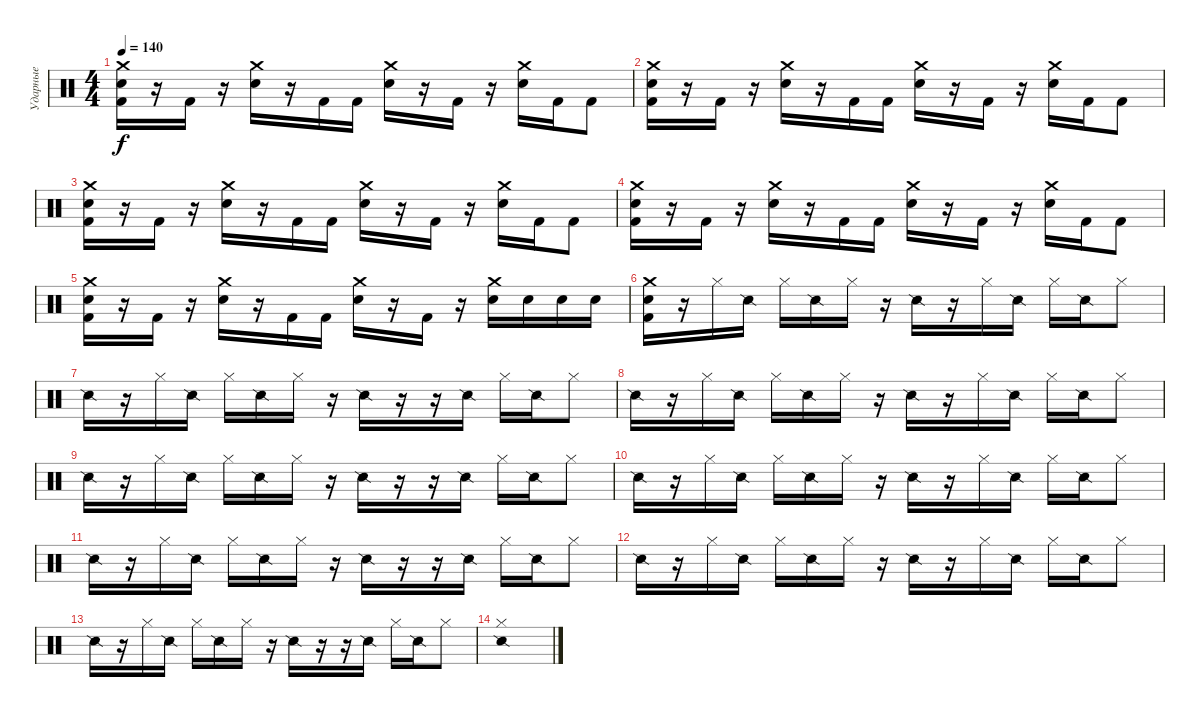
\track ("Ударные" "Ударные") {instrument percussion}
\staff {score}
\articulation defaults
\ts (4 4)
\tempo 140
\clef neutral
\ks c
("Crash medium (hit)" "Electric Snare (hit)" "Kick (hit) 2").16{dy f} r.16 "Kick (hit) 2".16 r.16 ("Crash medium (hit)" "Electric Snare (hit)").16 r.16 "Kick (hit) 2".16 "Kick (hit) 2".16 ("Crash medium (hit)" "Electric Snare (hit)").16 r.16 "Kick (hit) 2".16 r.16 ("Crash medium (hit)" "Electric Snare (hit)").16 "Kick (hit) 2".16 "Kick (hit) 2".8 |
("Crash medium (hit)" "Electric Snare (hit)" "Kick (hit) 2").16 r.16 "Kick (hit) 2".16 r.16 ("Crash medium (hit)" "Electric Snare (hit)").16 r.16 "Kick (hit) 2".16 "Kick (hit) 2".16 ("Crash medium (hit)" "Electric Snare (hit)").16 r.16 "Kick (hit) 2".16 r.16 ("Crash medium (hit)" "Electric Snare (hit)").16 "Kick (hit) 2".16 "Kick (hit) 2".8 |
("Crash medium (hit)" "Electric Snare (hit)" "Kick (hit) 2").16 r.16 "Kick (hit) 2".16 r.16 ("Crash medium (hit)" "Electric Snare (hit)").16 r.16 "Kick (hit) 2".16 "Kick (hit) 2".16 ("Crash medium (hit)" "Electric Snare (hit)").16 r.16 "Kick (hit) 2".16 r.16 ("Crash medium (hit)" "Electric Snare (hit)").16 "Kick (hit) 2".16 "Kick (hit) 2".8 |
("Crash medium (hit)" "Electric Snare (hit)" "Kick (hit) 2").16 r.16 "Kick (hit) 2".16 r.16 ("Crash medium (hit)" "Electric Snare (hit)").16 r.16 "Kick (hit) 2".16 "Kick (hit) 2".16 ("Crash medium (hit)" "Electric Snare (hit)").16 r.16 "Kick (hit) 2".16 r.16 ("Crash medium (hit)" "Electric Snare (hit)").16 "Kick (hit) 2".16 "Kick (hit) 2".8 |
("Crash medium (hit)" "Electric Snare (hit)" "Kick (hit) 2").16 r.16 "Kick (hit) 2".16 r.16 ("Crash medium (hit)" "Electric Snare (hit)").16 r.16 "Kick (hit) 2".16 "Kick (hit) 2".16 ("Crash medium (hit)" "Electric Snare (hit)").16 r.16 "Kick (hit) 2".16 r.16 ("Crash medium (hit)" "Electric Snare (hit)").16 "Electric Snare (hit)".16 "Electric Snare (hit)".16 "Electric Snare (hit)".16 |
("Crash medium (hit)" "Electric Snare (hit)" "Kick (hit) 2").16 r.16 "Hi-Hat (closed)".16 "Snare (side stick) 2".16 "Hi-Hat (closed)".16 "Snare (side stick) 2".16 "Hi-Hat (closed)".16 r.16 "Snare (side stick) 2".16 r.16 "Hi-Hat (closed)".16 "Snare (side stick) 2".16 "Hi-Hat (closed)".16 "Snare (side stick) 2".16 "Hi-Hat (closed)".8 |
"Snare (side stick) 2".16 r.16 "Hi-Hat (closed)".16 "Snare (side stick) 2".16 "Hi-Hat (closed)".16 "Snare (side stick) 2".16 "Hi-Hat (closed)".16 r.16 "Snare (side stick) 2".16 r.16 r.16 "Snare (side stick) 2".16 "Hi-Hat (closed)".16 "Snare (side stick) 2".16 "Hi-Hat (closed)".8 |
"Snare (side stick) 2".16 r.16 "Hi-Hat (closed)".16 "Snare (side stick) 2".16 "Hi-Hat (closed)".16 "Snare (side stick) 2".16 "Hi-Hat (closed)".16 r.16 "Snare (side stick) 2".16 r.16 "Hi-Hat (closed)".16 "Snare (side stick) 2".16 "Hi-Hat (closed)".16 "Snare (side stick) 2".16 "Hi-Hat (closed)".8 |
"Snare (side stick) 2".16 r.16 "Hi-Hat (closed)".16 "Snare (side stick) 2".16 "Hi-Hat (closed)".16 "Snare (side stick) 2".16 "Hi-Hat (closed)".16 r.16 "Snare (side stick) 2".16 r.16 r.16 "Snare (side stick) 2".16 "Hi-Hat (closed)".16 "Snare (side stick) 2".16 "Hi-Hat (closed)".8 |
"Snare (side stick) 2".16 r.16 "Hi-Hat (closed)".16 "Snare (side stick) 2".16 "Hi-Hat (closed)".16 "Snare (side stick) 2".16 "Hi-Hat (closed)".16 r.16 "Snare (side stick) 2".16 r.16 "Hi-Hat (closed)".16 "Snare (side stick) 2".16 "Hi-Hat (closed)".16 "Snare (side stick) 2".16 "Hi-Hat (closed)".8 |
"Snare (side stick) 2".16 r.16 "Hi-Hat (closed)".16 "Snare (side stick) 2".16 "Hi-Hat (closed)".16 "Snare (side stick) 2".16 "Hi-Hat (closed)".16 r.16 "Snare (side stick) 2".16 r.16 r.16 "Snare (side stick) 2".16 "Hi-Hat (closed)".16 "Snare (side stick) 2".16 "Hi-Hat (closed)".8 |
"Snare (side stick) 2".16 r.16 "Hi-Hat (closed)".16 "Snare (side stick) 2".16 "Hi-Hat (closed)".16 "Snare (side stick) 2".16 "Hi-Hat (closed)".16 r.16 "Snare (side stick) 2".16 r.16 "Hi-Hat (closed)".16 "Snare (side stick) 2".16 "Hi-Hat (closed)".16 "Snare (side stick) 2".16 "Hi-Hat (closed)".8 |
"Snare (side stick) 2".16 r.16 "Hi-Hat (closed)".16 "Snare (side stick) 2".16 "Hi-Hat (closed)".16 "Snare (side stick) 2".16 "Hi-Hat (closed)".16 r.16 "Snare (side stick) 2".16 r.16 r.16 "Snare (side stick) 2".16 "Hi-Hat (closed)".16 "Snare (side stick) 2".16 "Hi-Hat (closed)".8 |
("Hi-Hat (closed)" "Snare (side stick) 2").1
